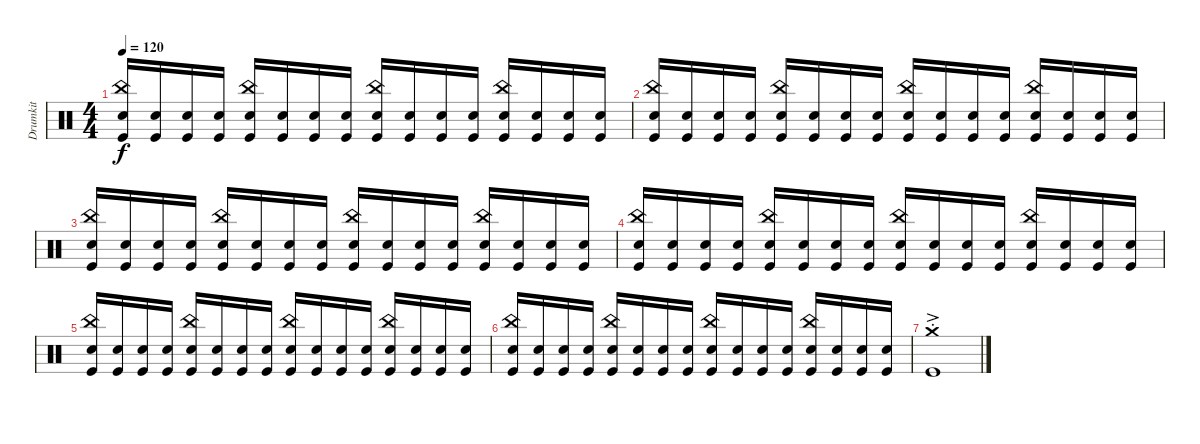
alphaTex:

\track ("Drumkit" "Drumkit") {instrument percussion}
\staff {score}
\articulation defaults
\ts (4 4)
\tempo 120
\clef neutral
\ks c
("Kick (hit)" "China (hit)" "Snare (hit) 2").16{dy f} ("Kick (hit)" "Snare (hit) 2").16 ("Kick (hit)" "Snare (hit) 2").16 ("Kick (hit)" "Snare (hit) 2").16 ("Kick (hit)" "China (hit)" "Snare (hit) 2").16 ("Kick (hit)" "Snare (hit) 2").16 ("Kick (hit)" "Snare (hit) 2").16 ("Kick (hit)" "Snare (hit) 2").16 ("Kick (hit)" "China (hit)" "Snare (hit) 2").16 ("Kick (hit)" "Snare (hit) 2").16 ("Kick (hit)" "Snare (hit) 2").16 ("Kick (hit)" "Snare (hit) 2").16 ("Kick (hit)" "China (hit)" "Snare (hit) 2").16 ("Kick (hit)" "Snare (hit) 2").16 ("Kick (hit)" "Snare (hit) 2").16 ("Kick (hit)" "Snare (hit) 2").16 |
("Kick (hit)" "China (hit)" "Snare (hit) 2").16 ("Kick (hit)" "Snare (hit) 2").16 ("Kick (hit)" "Snare (hit) 2").16 ("Kick (hit)" "Snare (hit) 2").16 ("Kick (hit)" "China (hit)" "Snare (hit) 2").16 ("Kick (hit)" "Snare (hit) 2").16 ("Kick (hit)" "Snare (hit) 2").16 ("Kick (hit)" "Snare (hit) 2").16 ("Kick (hit)" "China (hit)" "Snare (hit) 2").16 ("Kick (hit)" "Snare (hit) 2").16 ("Kick (hit)" "Snare (hit) 2").16 ("Kick (hit)" "Snare (hit) 2").16 ("Kick (hit)" "China (hit)" "Snare (hit) 2").16 ("Kick (hit)" "Snare (hit) 2").16 ("Kick (hit)" "Snare (hit) 2").16 ("Kick (hit)" "Snare (hit) 2").16 |
("Kick (hit)" "China (hit)" "Snare (hit) 2").16 ("Kick (hit)" "Snare (hit) 2").16 ("Kick (hit)" "Snare (hit) 2").16 ("Kick (hit)" "Snare (hit) 2").16 ("Kick (hit)" "China (hit)" "Snare (hit) 2").16 ("Kick (hit)" "Snare (hit) 2").16 ("Kick (hit)" "Snare (hit) 2").16 ("Kick (hit)" "Snare (hit) 2").16 ("Kick (hit)" "China (hit)" "Snare (hit) 2").16 ("Kick (hit)" "Snare (hit) 2").16 ("Kick (hit)" "Snare (hit) 2").16 ("Kick (hit)" "Snare (hit) 2").16 ("Kick (hit)" "China (hit)" "Snare (hit) 2").16 ("Kick (hit)" "Snare (hit) 2").16 ("Kick (hit)" "Snare (hit) 2").16 ("Kick (hit)" "Snare (hit) 2").16 |
("Kick (hit)" "China (hit)" "Snare (hit) 2").16 ("Kick (hit)" "Snare (hit) 2").16 ("Kick (hit)" "Snare (hit) 2").16 ("Kick (hit)" "Snare (hit) 2").16 ("Kick (hit)" "China (hit)" "Snare (hit) 2").16 ("Kick (hit)" "Snare (hit) 2").16 ("Kick (hit)" "Snare (hit) 2").16 ("Kick (hit)" "Snare (hit) 2").16 ("Kick (hit)" "China (hit)" "Snare (hit) 2").16 ("Kick (hit)" "Snare (hit) 2").16 ("Kick (hit)" "Snare (hit) 2").16 ("Kick (hit)" "Snare (hit) 2").16 ("Kick (hit)" "China (hit)" "Snare (hit) 2").16 ("Kick (hit)" "Snare (hit) 2").16 ("Kick (hit)" "Snare (hit) 2").16 ("Kick (hit)" "Snare (hit) 2").16 |
("Kick (hit)" "China (hit)" "Snare (hit) 2").16 ("Kick (hit)" "Snare (hit) 2").16 ("Kick (hit)" "Snare (hit) 2").16 ("Kick (hit)" "Snare (hit) 2").16 ("Kick (hit)" "China (hit)" "Snare (hit) 2").16 ("Kick (hit)" "Snare (hit) 2").16 ("Kick (hit)" "Snare (hit) 2").16 ("Kick (hit)" "Snare (hit) 2").16 ("Kick (hit)" "China (hit)" "Snare (hit) 2").16 ("Kick (hit)" "Snare (hit) 2").16 ("Kick (hit)" "Snare (hit) 2").16 ("Kick (hit)" "Snare (hit) 2").16 ("Kick (hit)" "China (hit)" "Snare (hit) 2").16 ("Kick (hit)" "Snare (hit) 2").16 ("Kick (hit)" "Snare (hit) 2").16 ("Kick (hit)" "Snare (hit) 2").16 |
("Kick (hit)" "China (hit)" "Snare (hit) 2").16 ("Kick (hit)" "Snare (hit) 2").16 ("Kick (hit)" "Snare (hit) 2").16 ("Kick (hit)" "Snare (hit) 2").16 ("Kick (hit)" "China (hit)" "Snare (hit) 2").16 ("Kick (hit)" "Snare (hit) 2").16 ("Kick (hit)" "Snare (hit) 2").16 ("Kick (hit)" "Snare (hit) 2").16 ("Kick (hit)" "China (hit)" "Snare (hit) 2").16 ("Kick (hit)" "Snare (hit) 2").16 ("Kick (hit)" "Snare (hit) 2").16 ("Kick (hit)" "Snare (hit) 2").16 ("Kick (hit)" "China (hit)" "Snare (hit) 2").16 ("Kick (hit)" "Snare (hit) 2").16 ("Kick (hit)" "Snare (hit) 2").16 ("Kick (hit)" "Snare (hit) 2").16 |
("Kick (hit)" "Crash medium (hit)"{ac st}).1
